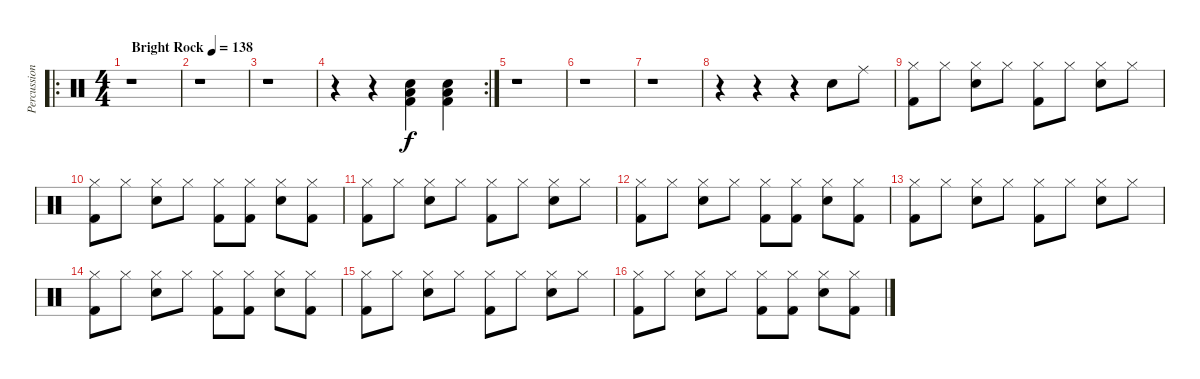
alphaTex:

\track ("Percussion" "Percussion") {instrument percussion}
\staff {score}
\articulation defaults
\ro
\ts (4 4)
\tempo (138 "Bright Rock")
\clef neutral
\ks c
r.1{dy f} |
r.1 |
r.1 |
\rc 2
r.4 r.4 ("Electric Snare (hit)" "Kick (hit) 2" "Low Floor Tom (hit)").4 ("Electric Snare (hit)" "Kick (hit) 2" "Low Floor Tom (hit)").4 |
r.1 |
r.1 |
r.1 |
r.4 r.4 r.4 "Electric Snare (hit)".8 "Ride (middle)".8 |
("Hi-Hat (closed)" "Kick (hit) 2").8 "Hi-Hat (closed)".8 ("Hi-Hat (closed)" "Snare (hit) 2").8 "Hi-Hat (closed)".8 ("Hi-Hat (closed)" "Kick (hit) 2").8 "Hi-Hat (closed)".8 ("Hi-Hat (closed)" "Snare (hit) 2").8 "Hi-Hat (closed)".8 |
("Hi-Hat (closed)" "Kick (hit) 2").8 "Hi-Hat (closed)".8 ("Hi-Hat (closed)" "Snare (hit) 2").8 "Hi-Hat (closed)".8 ("Hi-Hat (closed)" "Kick (hit) 2").8 ("Hi-Hat (closed)" "Kick (hit) 2").8 ("Hi-Hat (closed)" "Snare (hit) 2").8 ("Hi-Hat (closed)" "Kick (hit) 2").8 |
("Hi-Hat (closed)" "Kick (hit) 2").8 "Hi-Hat (closed)".8 ("Hi-Hat (closed)" "Snare (hit) 2").8 "Hi-Hat (closed)".8 ("Hi-Hat (closed)" "Kick (hit) 2").8 "Hi-Hat (closed)".8 ("Hi-Hat (closed)" "Snare (hit) 2").8 "Hi-Hat (closed)".8 |
("Hi-Hat (closed)" "Kick (hit) 2").8 "Hi-Hat (closed)".8 ("Hi-Hat (closed)" "Snare (hit) 2").8 "Hi-Hat (closed)".8 ("Hi-Hat (closed)" "Kick (hit) 2").8 ("Hi-Hat (closed)" "Kick (hit) 2").8 ("Hi-Hat (closed)" "Snare (hit) 2").8 ("Hi-Hat (closed)" "Kick (hit) 2").8 |
("Hi-Hat (closed)" "Kick (hit) 2").8 "Hi-Hat (closed)".8 ("Hi-Hat (closed)" "Snare (hit) 2").8 "Hi-Hat (closed)".8 ("Hi-Hat (closed)" "Kick (hit) 2").8 "Hi-Hat (closed)".8 ("Hi-Hat (closed)" "Snare (hit) 2").8 "Hi-Hat (closed)".8 |
("Hi-Hat (closed)" "Kick (hit) 2").8 "Hi-Hat (closed)".8 ("Hi-Hat (closed)" "Snare (hit) 2").8 "Hi-Hat (closed)".8 ("Hi-Hat (closed)" "Kick (hit) 2").8 ("Hi-Hat (closed)" "Kick (hit) 2").8 ("Hi-Hat (closed)" "Snare (hit) 2").8 ("Hi-Hat (closed)" "Kick (hit) 2").8 |
("Hi-Hat (closed)" "Kick (hit) 2").8 "Hi-Hat (closed)".8 ("Hi-Hat (closed)" "Snare (hit) 2").8 "Hi-Hat (closed)".8 ("Hi-Hat (closed)" "Kick (hit) 2").8 "Hi-Hat (closed)".8 ("Hi-Hat (closed)" "Snare (hit) 2").8 "Hi-Hat (closed)".8 |
("Hi-Hat (closed)" "Kick (hit) 2").8 "Hi-Hat (closed)".8 ("Hi-Hat (closed)" "Snare (hit) 2").8 "Hi-Hat (closed)".8 ("Hi-Hat (closed)" "Kick (hit) 2").8 ("Hi-Hat (closed)" "Kick (hit) 2").8 ("Hi-Hat (closed)" "Snare (hit) 2").8 ("Hi-Hat (closed)" "Kick (hit) 2").8
